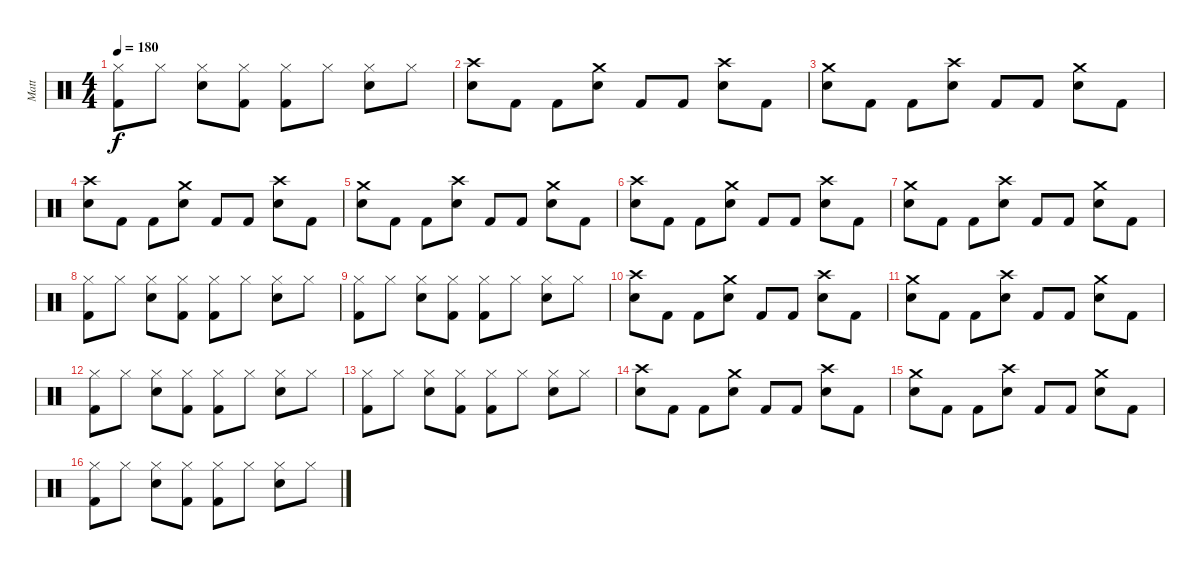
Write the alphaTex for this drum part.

\track ("Matt" "Matt") {instrument percussion}
\staff {score}
\articulation defaults
\ts (4 4)
\tempo 180
\clef neutral
\ks c
("Hi-Hat (closed)" "Kick (hit) 2").8{dy f} "Hi-Hat (closed)".8 ("Hi-Hat (closed)" "Snare (hit) 2").8 ("Hi-Hat (closed)" "Kick (hit) 2").8 ("Hi-Hat (closed)" "Kick (hit) 2").8 "Hi-Hat (closed)".8 ("Hi-Hat (closed)" "Snare (hit) 2").8 "Hi-Hat (closed)".8 |
("Crash high (hit)" "Snare (hit) 2").8 "Kick (hit) 2".8 "Kick (hit) 2".8 ("Crash medium (hit)" "Snare (hit) 2").8 "Kick (hit) 2".8 "Kick (hit) 2".8 ("Crash high (hit)" "Snare (hit) 2").8 "Kick (hit) 2".8 |
("Crash medium (hit)" "Snare (hit) 2").8 "Kick (hit) 2".8 "Kick (hit) 2".8 ("Crash high (hit)" "Snare (hit) 2").8 "Kick (hit) 2".8 "Kick (hit) 2".8 ("Crash medium (hit)" "Snare (hit) 2").8 "Kick (hit) 2".8 |
("Crash high (hit)" "Snare (hit) 2").8 "Kick (hit) 2".8 "Kick (hit) 2".8 ("Crash medium (hit)" "Snare (hit) 2").8 "Kick (hit) 2".8 "Kick (hit) 2".8 ("Crash high (hit)" "Snare (hit) 2").8 "Kick (hit) 2".8 |
("Crash medium (hit)" "Snare (hit) 2").8 "Kick (hit) 2".8 "Kick (hit) 2".8 ("Crash high (hit)" "Snare (hit) 2").8 "Kick (hit) 2".8 "Kick (hit) 2".8 ("Crash medium (hit)" "Snare (hit) 2").8 "Kick (hit) 2".8 |
("Crash high (hit)" "Snare (hit) 2").8 "Kick (hit) 2".8 "Kick (hit) 2".8 ("Crash medium (hit)" "Snare (hit) 2").8 "Kick (hit) 2".8 "Kick (hit) 2".8 ("Crash high (hit)" "Snare (hit) 2").8 "Kick (hit) 2".8 |
("Crash medium (hit)" "Snare (hit) 2").8 "Kick (hit) 2".8 "Kick (hit) 2".8 ("Crash high (hit)" "Snare (hit) 2").8 "Kick (hit) 2".8 "Kick (hit) 2".8 ("Crash medium (hit)" "Snare (hit) 2").8 "Kick (hit) 2".8 |
("Hi-Hat (closed)" "Kick (hit) 2").8 "Hi-Hat (closed)".8 ("Hi-Hat (closed)" "Snare (hit) 2").8 ("Hi-Hat (closed)" "Kick (hit) 2").8 ("Hi-Hat (closed)" "Kick (hit) 2").8 "Hi-Hat (closed)".8 ("Hi-Hat (closed)" "Snare (hit) 2").8 "Hi-Hat (closed)".8 |
("Hi-Hat (closed)" "Kick (hit) 2").8 "Hi-Hat (closed)".8 ("Hi-Hat (closed)" "Snare (hit) 2").8 ("Hi-Hat (closed)" "Kick (hit) 2").8 ("Hi-Hat (closed)" "Kick (hit) 2").8 "Hi-Hat (closed)".8 ("Hi-Hat (closed)" "Snare (hit) 2").8 "Hi-Hat (closed)".8 |
("Crash high (hit)" "Snare (hit) 2").8 "Kick (hit) 2".8 "Kick (hit) 2".8 ("Crash medium (hit)" "Snare (hit) 2").8 "Kick (hit) 2".8 "Kick (hit) 2".8 ("Crash high (hit)" "Snare (hit) 2").8 "Kick (hit) 2".8 |
("Crash medium (hit)" "Snare (hit) 2").8 "Kick (hit) 2".8 "Kick (hit) 2".8 ("Crash high (hit)" "Snare (hit) 2").8 "Kick (hit) 2".8 "Kick (hit) 2".8 ("Crash medium (hit)" "Snare (hit) 2").8 "Kick (hit) 2".8 |
("Hi-Hat (closed)" "Kick (hit) 2").8 "Hi-Hat (closed)".8 ("Hi-Hat (closed)" "Snare (hit) 2").8 ("Hi-Hat (closed)" "Kick (hit) 2").8 ("Hi-Hat (closed)" "Kick (hit) 2").8 "Hi-Hat (closed)".8 ("Hi-Hat (closed)" "Snare (hit) 2").8 "Hi-Hat (closed)".8 |
("Hi-Hat (closed)" "Kick (hit) 2").8 "Hi-Hat (closed)".8 ("Hi-Hat (closed)" "Snare (hit) 2").8 ("Hi-Hat (closed)" "Kick (hit) 2").8 ("Hi-Hat (closed)" "Kick (hit) 2").8 "Hi-Hat (closed)".8 ("Hi-Hat (closed)" "Snare (hit) 2").8 "Hi-Hat (closed)".8 |
("Crash high (hit)" "Snare (hit) 2").8 "Kick (hit) 2".8 "Kick (hit) 2".8 ("Crash medium (hit)" "Snare (hit) 2").8 "Kick (hit) 2".8 "Kick (hit) 2".8 ("Crash high (hit)" "Snare (hit) 2").8 "Kick (hit) 2".8 |
("Crash medium (hit)" "Snare (hit) 2").8 "Kick (hit) 2".8 "Kick (hit) 2".8 ("Crash high (hit)" "Snare (hit) 2").8 "Kick (hit) 2".8 "Kick (hit) 2".8 ("Crash medium (hit)" "Snare (hit) 2").8 "Kick (hit) 2".8 |
("Hi-Hat (closed)" "Kick (hit) 2").8 "Hi-Hat (closed)".8 ("Hi-Hat (closed)" "Snare (hit) 2").8 ("Hi-Hat (closed)" "Kick (hit) 2").8 ("Hi-Hat (closed)" "Kick (hit) 2").8 "Hi-Hat (closed)".8 ("Hi-Hat (closed)" "Snare (hit) 2").8 "Hi-Hat (closed)".8
